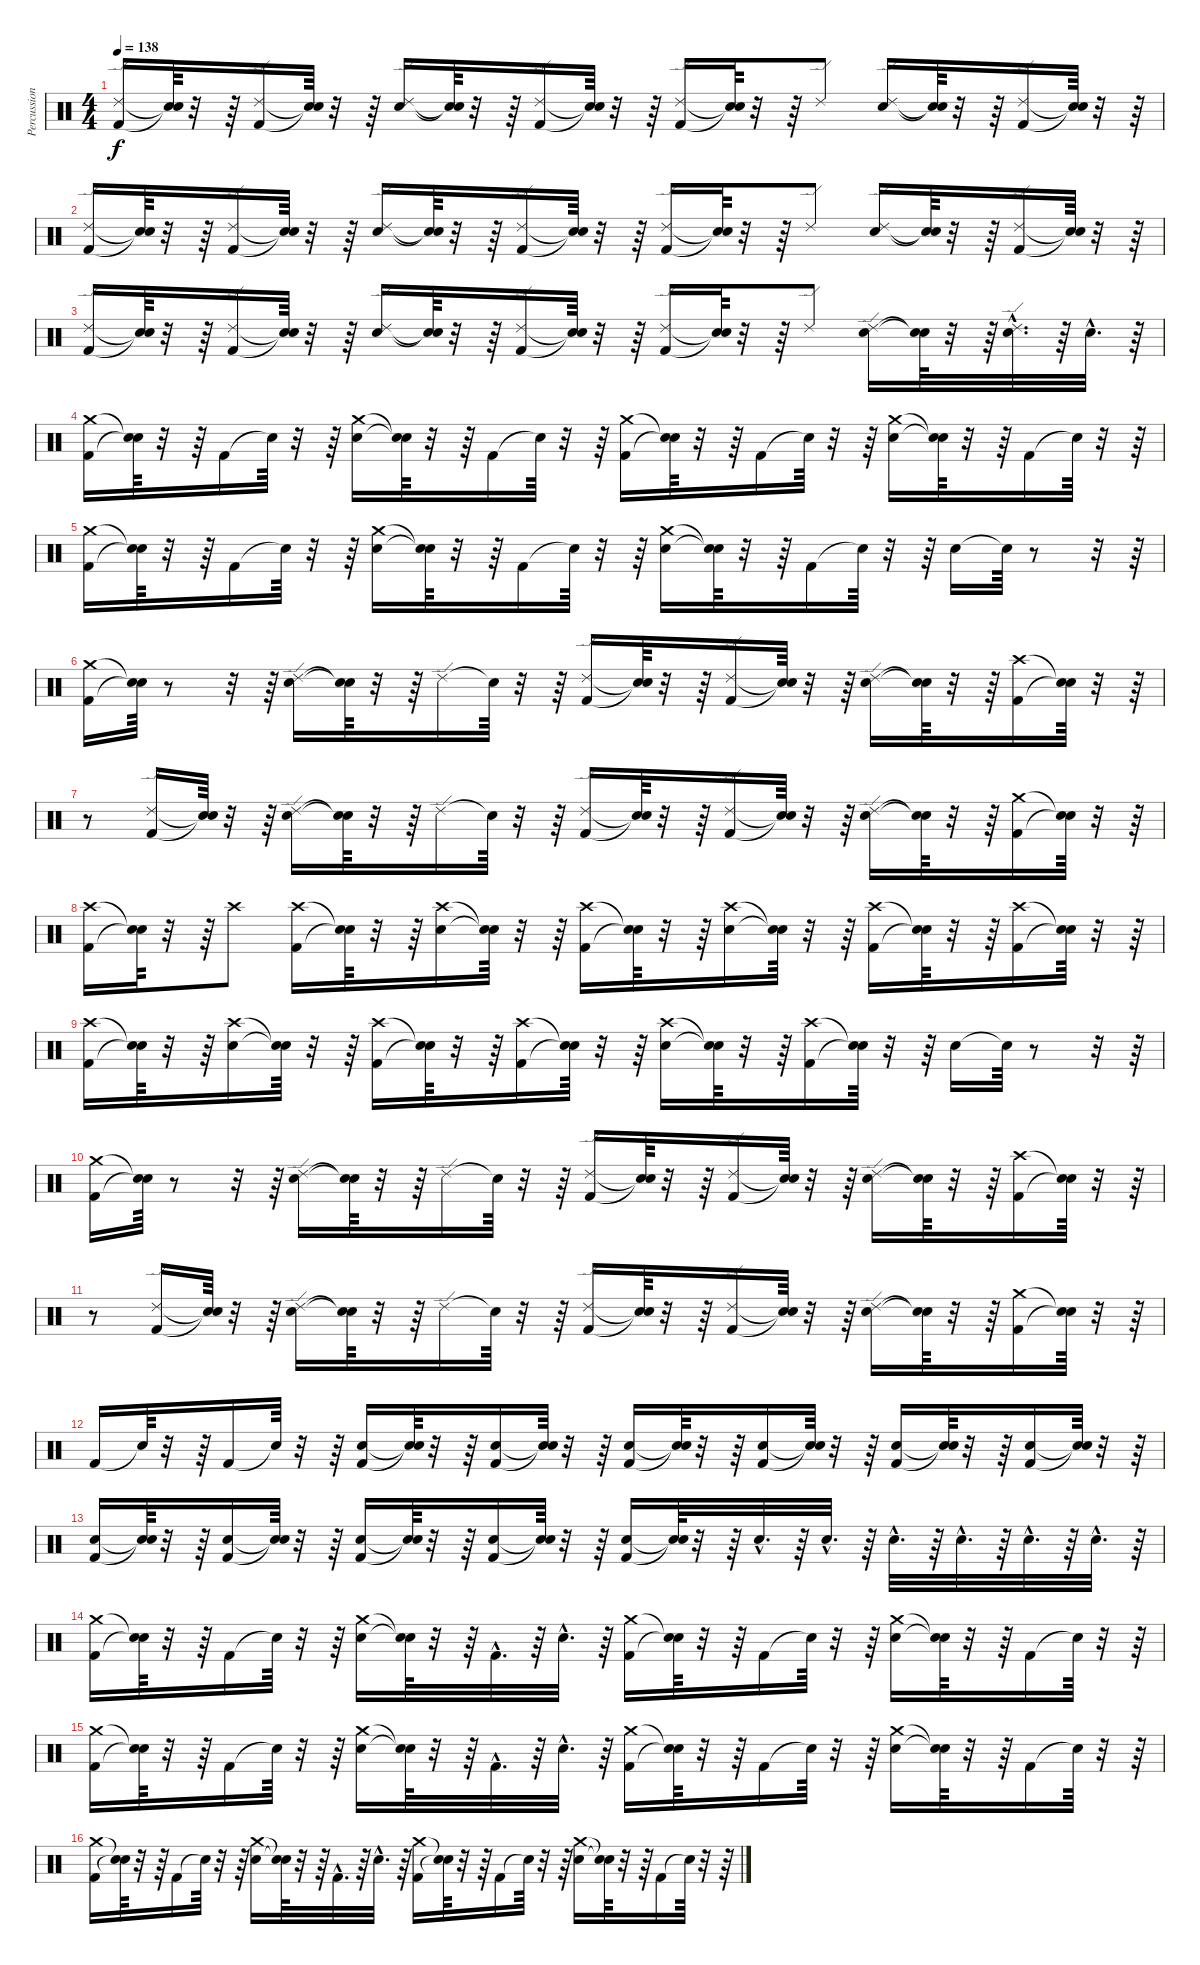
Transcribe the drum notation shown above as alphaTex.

\track ("Percussions" "Percussion") {instrument percussion}
\staff {score}
\articulation defaults
\ts (4 4)
\tempo 138
\clef neutral
\ks c
("Kick (hit) 2" "Ride (edge) 2").16{dy f} ("Snare (hit)"{t} "Snare (hit)"{t}).64 r.32 r.64 ("Kick (hit) 2" "Ride (edge) 2").16 ("Snare (hit)"{t} "Snare (hit)"{t}).64 r.32 r.64 ("Electric Snare (hit)" "Ride (edge) 2").16 ("Snare (hit)"{t} "Snare (hit)"{t}).64 r.32 r.64 ("Kick (hit) 2" "Ride (edge) 2").16 ("Snare (hit)"{t} "Snare (hit)"{t}).64 r.32 r.64 ("Kick (hit) 2" "Ride (edge) 2").16 ("Snare (hit)"{t} "Snare (hit)"{t}).64 r.32 r.64 "Ride (edge) 2".8 ("Electric Snare (hit)" "Ride (edge) 2").16 ("Snare (hit)"{t} "Snare (hit)"{t}).64 r.32 r.64 ("Kick (hit) 2" "Ride (edge) 2").16 ("Snare (hit)"{t} "Snare (hit)"{t}).64 r.32 r.64 |
("Kick (hit) 2" "Ride (edge) 2").16 ("Snare (hit)"{t} "Snare (hit)"{t}).64 r.32 r.64 ("Kick (hit) 2" "Ride (edge) 2").16 ("Snare (hit)"{t} "Snare (hit)"{t}).64 r.32 r.64 ("Electric Snare (hit)" "Ride (edge) 2").16 ("Snare (hit)"{t} "Snare (hit)"{t}).64 r.32 r.64 ("Kick (hit) 2" "Ride (edge) 2").16 ("Snare (hit)"{t} "Snare (hit)"{t}).64 r.32 r.64 ("Kick (hit) 2" "Ride (edge) 2").16 ("Snare (hit)"{t} "Snare (hit)"{t}).64 r.32 r.64 "Ride (edge) 2".8 ("Electric Snare (hit)" "Ride (edge) 2").16 ("Snare (hit)"{t} "Snare (hit)"{t}).64 r.32 r.64 ("Kick (hit) 2" "Ride (edge) 2").16 ("Snare (hit)"{t} "Snare (hit)"{t}).64 r.32 r.64 |
("Kick (hit) 2" "Ride (edge) 2").16 ("Snare (hit)"{t} "Snare (hit)"{t}).64 r.32 r.64 ("Kick (hit) 2" "Ride (edge) 2").16 ("Snare (hit)"{t} "Snare (hit)"{t}).64 r.32 r.64 ("Electric Snare (hit)" "Ride (edge) 2").16 ("Snare (hit)"{t} "Snare (hit)"{t}).64 r.32 r.64 ("Kick (hit) 2" "Ride (edge) 2").16 ("Snare (hit)"{t} "Snare (hit)"{t}).64 r.32 r.64 ("Kick (hit) 2" "Ride (edge) 2").16 ("Snare (hit)"{t} "Snare (hit)"{t}).64 r.32 r.64 "Ride (edge) 2".8 ("Electric Snare (hit)" "Ride (edge) 2").16 ("Snare (hit)"{t} "Snare (hit)"{t}).64 r.32 r.64 ("Electric Snare (hit)"{hac} "Ride (edge) 2"{hac}).32{d} r.64 "Electric Snare (hit)"{hac}.32{d} r.64 |
("Crash medium (hit)" "Kick (hit) 2").16 ("Snare (hit)"{t} "Snare (hit)"{t}).64 r.32 r.64 "Kick (hit) 2".16 "Snare (hit)"{t}.64 r.32 r.64 ("Crash medium (hit)" "Electric Snare (hit)").16 ("Snare (hit)"{t} "Snare (hit)"{t}).64 r.32 r.64 "Kick (hit) 2".16 "Snare (hit)"{t}.64 r.32 r.64 ("Crash medium (hit)" "Kick (hit) 2").16 ("Snare (hit)"{t} "Snare (hit)"{t}).64 r.32 r.64 "Kick (hit) 2".16 "Snare (hit)"{t}.64 r.32 r.64 ("Crash medium (hit)" "Electric Snare (hit)").16 ("Snare (hit)"{t} "Snare (hit)"{t}).64 r.32 r.64 "Kick (hit) 2".16 "Snare (hit)"{t}.64 r.32 r.64 |
("Crash medium (hit)" "Kick (hit) 2").16 ("Snare (hit)"{t} "Snare (hit)"{t}).64 r.32 r.64 "Kick (hit) 2".16 "Snare (hit)"{t}.64 r.32 r.64 ("Crash medium (hit)" "Electric Snare (hit)").16 ("Snare (hit)"{t} "Snare (hit)"{t}).64 r.32 r.64 "Kick (hit) 2".16 "Snare (hit)"{t}.64 r.32 r.64 ("Crash medium (hit)" "Electric Snare (hit)").16 ("Snare (hit)"{t} "Snare (hit)"{t}).64 r.32 r.64 "Kick (hit) 2".16 "Snare (hit)"{t}.64 r.32 r.64 "Electric Snare (hit)".16 "Snare (hit)"{t}.64 r.8 r.32 r.64 |
("Kick (hit) 2" "Crash medium (hit)").16 ("Snare (hit)"{t} "Snare (hit)"{t}).64 r.8 r.32 r.64 ("Electric Snare (hit)" "Ride (edge) 2").16 ("Snare (hit)"{t} "Snare (hit)"{t}).64 r.32 r.64 "Ride (edge) 2".16 "Snare (hit)"{t}.64 r.32 r.64 ("Kick (hit) 2" "Ride (edge) 2").16 ("Snare (hit)"{t} "Snare (hit)"{t}).64 r.32 r.64 ("Kick (hit) 2" "Ride (edge) 2").16 ("Snare (hit)"{t} "Snare (hit)"{t}).64 r.32 r.64 ("Electric Snare (hit)" "Ride (edge) 2").16 ("Snare (hit)"{t} "Snare (hit)"{t}).64 r.32 r.64 ("Kick (hit) 2" "Crash high (hit)").16 ("Snare (hit)"{t} "Snare (hit)"{t}).64 r.32 r.64 |
r.8 ("Kick (hit) 2" "Ride (edge) 2").16 ("Snare (hit)"{t} "Snare (hit)"{t}).64 r.32 r.64 ("Electric Snare (hit)" "Ride (edge) 2").16 ("Snare (hit)"{t} "Snare (hit)"{t}).64 r.32 r.64 "Ride (edge) 2".16 "Snare (hit)"{t}.64 r.32 r.64 ("Kick (hit) 2" "Ride (edge) 2").16 ("Snare (hit)"{t} "Snare (hit)"{t}).64 r.32 r.64 ("Kick (hit) 2" "Ride (edge) 2").16 ("Snare (hit)"{t} "Snare (hit)"{t}).64 r.32 r.64 ("Electric Snare (hit)" "Ride (edge) 2").16 ("Snare (hit)"{t} "Snare (hit)"{t}).64 r.32 r.64 ("Kick (hit) 2" "Crash medium (hit)").16 ("Snare (hit)"{t} "Snare (hit)"{t}).64 r.32 r.64 |
("Kick (hit) 2" "Crash high (hit)").16 ("Snare (hit)"{t} "Snare (hit)"{t}).64 r.32 r.64 "Crash high (hit)".8 ("Kick (hit) 2" "Crash high (hit)").16 ("Snare (hit)"{t} "Snare (hit)"{t}).64 r.32 r.64 ("Electric Snare (hit)" "Crash high (hit)").16 ("Snare (hit)"{t} "Snare (hit)"{t}).64 r.32 r.64 ("Kick (hit) 2" "Crash high (hit)").16 ("Snare (hit)"{t} "Snare (hit)"{t}).64 r.32 r.64 ("Electric Snare (hit)" "Crash high (hit)").16 ("Snare (hit)"{t} "Snare (hit)"{t}).64 r.32 r.64 ("Kick (hit) 2" "Crash high (hit)").16 ("Snare (hit)"{t} "Snare (hit)"{t}).64 r.32 r.64 ("Kick (hit) 2" "Crash high (hit)").16 ("Snare (hit)"{t} "Snare (hit)"{t}).64 r.32 r.64 |
("Kick (hit) 2" "Crash high (hit)").16 ("Snare (hit)"{t} "Snare (hit)"{t}).64 r.32 r.64 ("Electric Snare (hit)" "Crash high (hit)").16 ("Snare (hit)"{t} "Snare (hit)"{t}).64 r.32 r.64 ("Kick (hit) 2" "Crash high (hit)").16 ("Snare (hit)"{t} "Snare (hit)"{t}).64 r.32 r.64 ("Kick (hit) 2" "Crash high (hit)").16 ("Snare (hit)"{t} "Snare (hit)"{t}).64 r.32 r.64 ("Electric Snare (hit)" "Crash high (hit)").16 ("Snare (hit)"{t} "Snare (hit)"{t}).64 r.32 r.64 ("Kick (hit) 2" "Crash high (hit)").16 ("Snare (hit)"{t} "Snare (hit)"{t}).64 r.32 r.64 "Electric Snare (hit)".16 "Snare (hit)"{t}.64 r.8 r.32 r.64 |
("Kick (hit) 2" "Crash medium (hit)").16 ("Snare (hit)"{t} "Snare (hit)"{t}).64 r.8 r.32 r.64 ("Electric Snare (hit)" "Ride (edge) 2").16 ("Snare (hit)"{t} "Snare (hit)"{t}).64 r.32 r.64 "Ride (edge) 2".16 "Snare (hit)"{t}.64 r.32 r.64 ("Kick (hit) 2" "Ride (edge) 2").16 ("Snare (hit)"{t} "Snare (hit)"{t}).64 r.32 r.64 ("Kick (hit) 2" "Ride (edge) 2").16 ("Snare (hit)"{t} "Snare (hit)"{t}).64 r.32 r.64 ("Electric Snare (hit)" "Ride (edge) 2").16 ("Snare (hit)"{t} "Snare (hit)"{t}).64 r.32 r.64 ("Kick (hit) 2" "Crash high (hit)").16 ("Snare (hit)"{t} "Snare (hit)"{t}).64 r.32 r.64 |
r.8 ("Kick (hit) 2" "Ride (edge) 2").16 ("Snare (hit)"{t} "Snare (hit)"{t}).64 r.32 r.64 ("Electric Snare (hit)" "Ride (edge) 2").16 ("Snare (hit)"{t} "Snare (hit)"{t}).64 r.32 r.64 "Ride (edge) 2".16 "Snare (hit)"{t}.64 r.32 r.64 ("Kick (hit) 2" "Ride (edge) 2").16 ("Snare (hit)"{t} "Snare (hit)"{t}).64 r.32 r.64 ("Kick (hit) 2" "Ride (edge) 2").16 ("Snare (hit)"{t} "Snare (hit)"{t}).64 r.32 r.64 ("Electric Snare (hit)" "Ride (edge) 2").16 ("Snare (hit)"{t} "Snare (hit)"{t}).64 r.32 r.64 ("Kick (hit) 2" "Crash medium (hit)").16 ("Snare (hit)"{t} "Snare (hit)"{t}).64 r.32 r.64 |
"Kick (hit) 2".16 "Snare (hit)"{t}.64 r.32 r.64 "Kick (hit) 2".16 "Snare (hit)"{t}.64 r.32 r.64 ("Electric Snare (hit)" "Kick (hit) 2").16 ("Snare (hit)"{t} "Snare (hit)"{t}).64 r.32 r.64 ("Electric Snare (hit)" "Kick (hit) 2").16 ("Snare (hit)"{t} "Snare (hit)"{t}).64 r.32 r.64 ("Electric Snare (hit)" "Kick (hit) 2").16 ("Snare (hit)"{t} "Snare (hit)"{t}).64 r.32 r.64 ("Electric Snare (hit)" "Kick (hit) 2").16 ("Snare (hit)"{t} "Snare (hit)"{t}).64 r.32 r.64 ("Electric Snare (hit)" "Kick (hit) 2").16 ("Snare (hit)"{t} "Snare (hit)"{t}).64 r.32 r.64 ("Electric Snare (hit)" "Kick (hit) 2").16 ("Snare (hit)"{t} "Snare (hit)"{t}).64 r.32 r.64 |
("Electric Snare (hit)" "Kick (hit) 2").16 ("Snare (hit)"{t} "Snare (hit)"{t}).64 r.32 r.64 ("Electric Snare (hit)" "Kick (hit) 2").16 ("Snare (hit)"{t} "Snare (hit)"{t}).64 r.32 r.64 ("Electric Snare (hit)" "Kick (hit) 2").16 ("Snare (hit)"{t} "Snare (hit)"{t}).64 r.32 r.64 ("Electric Snare (hit)" "Kick (hit) 2").16 ("Snare (hit)"{t} "Snare (hit)"{t}).64 r.32 r.64 ("Kick (hit) 2" "Electric Snare (hit)").16 ("Snare (hit)"{t} "Snare (hit)"{t}).64 r.32 r.64 "Electric Snare (hit)"{hac}.32{d} r.64 "Electric Snare (hit)"{hac}.32{d} r.64 "Electric Snare (hit)"{hac}.32{d} r.64 "Electric Snare (hit)"{hac}.32{d} r.64 "Electric Snare (hit)"{hac}.32{d} r.64 "Electric Snare (hit)"{hac}.32{d} r.64 |
("Kick (hit) 2" "Crash medium (hit)").16 ("Snare (hit)"{t} "Snare (hit)"{t}).64 r.32 r.64 "Kick (hit) 2".16 "Snare (hit)"{t}.64 r.32 r.64 ("Electric Snare (hit)" "Crash medium (hit)").16 ("Snare (hit)"{t} "Snare (hit)"{t}).64 r.32 r.64 "Kick (hit) 2"{hac}.32{d} r.64 "Electric Snare (hit)"{hac}.32{d} r.64 ("Kick (hit) 2" "Crash medium (hit)").16 ("Snare (hit)"{t} "Snare (hit)"{t}).64 r.32 r.64 "Kick (hit) 2".16 "Snare (hit)"{t}.64 r.32 r.64 ("Electric Snare (hit)" "Crash medium (hit)").16 ("Snare (hit)"{t} "Snare (hit)"{t}).64 r.32 r.64 "Kick (hit) 2".16 "Snare (hit)"{t}.64 r.32 r.64 |
("Kick (hit) 2" "Crash medium (hit)").16 ("Snare (hit)"{t} "Snare (hit)"{t}).64 r.32 r.64 "Kick (hit) 2".16 "Snare (hit)"{t}.64 r.32 r.64 ("Electric Snare (hit)" "Crash medium (hit)").16 ("Snare (hit)"{t} "Snare (hit)"{t}).64 r.32 r.64 "Kick (hit) 2"{hac}.32{d} r.64 "Electric Snare (hit)"{hac}.32{d} r.64 ("Kick (hit) 2" "Crash medium (hit)").16 ("Snare (hit)"{t} "Snare (hit)"{t}).64 r.32 r.64 "Kick (hit) 2".16 "Snare (hit)"{t}.64 r.32 r.64 ("Electric Snare (hit)" "Crash medium (hit)").16 ("Snare (hit)"{t} "Snare (hit)"{t}).64 r.32 r.64 "Kick (hit) 2".16 "Snare (hit)"{t}.64 r.32 r.64 |
("Kick (hit) 2" "Crash medium (hit)").16 ("Snare (hit)"{t} "Snare (hit)"{t}).64 r.32 r.64 "Kick (hit) 2".16 "Snare (hit)"{t}.64 r.32 r.64 ("Electric Snare (hit)" "Crash medium (hit)").16 ("Snare (hit)"{t} "Snare (hit)"{t}).64 r.32 r.64 "Kick (hit) 2"{hac}.32{d} r.64 "Electric Snare (hit)"{hac}.32{d} r.64 ("Kick (hit) 2" "Crash medium (hit)").16 ("Snare (hit)"{t} "Snare (hit)"{t}).64 r.32 r.64 "Kick (hit) 2".16 "Snare (hit)"{t}.64 r.32 r.64 ("Electric Snare (hit)" "Crash medium (hit)").16 ("Snare (hit)"{t} "Snare (hit)"{t}).64 r.32 r.64 "Kick (hit) 2".16 "Snare (hit)"{t}.64 r.32 r.64
